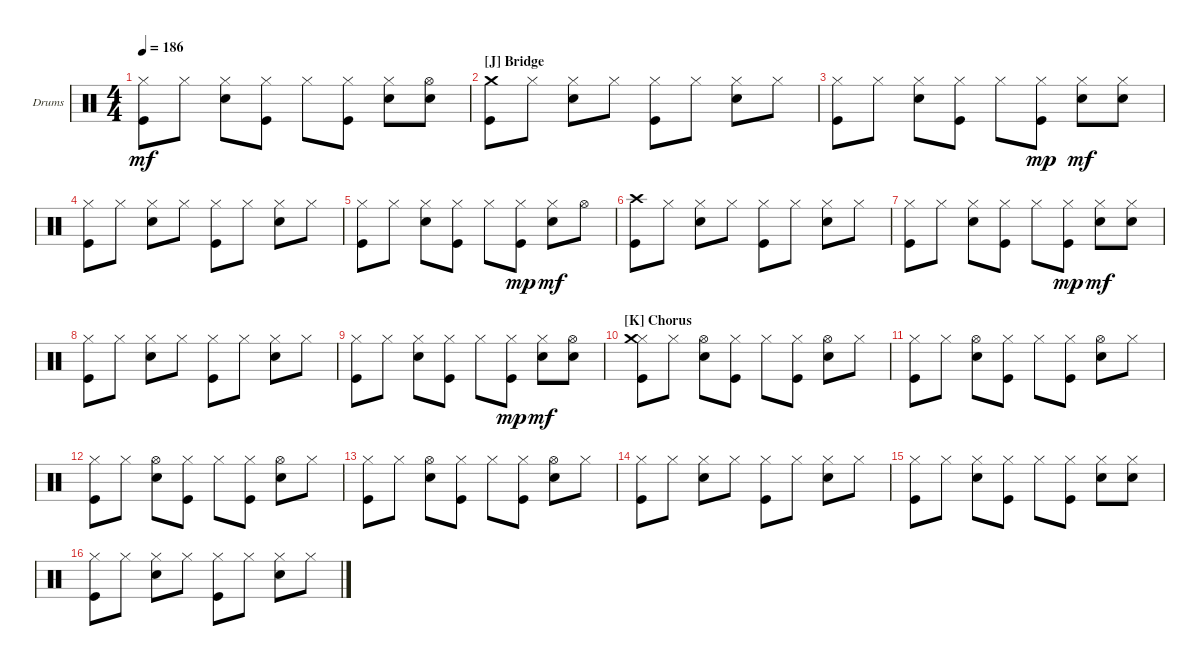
\bracketExtendMode groupsimilarinstruments
\firstSystemTrackNameOrientation horizontal
\otherSystemsTrackNameOrientation horizontal
\track ("Drumkit" "Drums") {instrument percussion}
\staff {score}
\articulation defaults
\ts (4 4)
\tempo 186
\clef neutral
\ks c
("Hi-Hat (closed)" "Kick (hit)").8{dy mf} "Hi-Hat (closed)".8 ("Hi-Hat (closed)" "Snare (hit) 2").8 ("Hi-Hat (closed)" "Kick (hit)").8 "Hi-Hat (closed)".8 ("Hi-Hat (closed)" "Kick (hit)").8 ("Hi-Hat (closed)" "Snare (hit) 2").8 ("Hi-Hat (open)" "Snare (hit) 2").8 |
\section ("J" "Bridge")
("Crash medium (hit)" "Kick (hit)").8 "Hi-Hat (closed)".8 ("Hi-Hat (closed)" "Snare (hit) 2").8 "Hi-Hat (closed)".8 ("Hi-Hat (closed)" "Kick (hit)").8 "Hi-Hat (closed)".8 ("Hi-Hat (closed)" "Snare (hit) 2").8 "Hi-Hat (closed)".8 |
("Hi-Hat (closed)" "Kick (hit)").8 "Hi-Hat (closed)".8 ("Hi-Hat (closed)" "Snare (hit) 2").8 ("Hi-Hat (closed)" "Kick (hit)").8 "Hi-Hat (closed)".8 ("Hi-Hat (closed)" "Kick (hit)").8{dy mp} ("Hi-Hat (closed)" "Snare (hit) 2").8{dy mf} ("Hi-Hat (closed)" "Snare (hit) 2").8 |
("Hi-Hat (closed)" "Kick (hit)").8 "Hi-Hat (closed)".8 ("Hi-Hat (closed)" "Snare (hit) 2").8 "Hi-Hat (closed)".8 ("Hi-Hat (closed)" "Kick (hit)").8 "Hi-Hat (closed)".8 ("Hi-Hat (closed)" "Snare (hit) 2").8 "Hi-Hat (closed)".8 |
("Hi-Hat (closed)" "Kick (hit)").8 "Hi-Hat (closed)".8 ("Hi-Hat (closed)" "Snare (hit) 2").8 ("Hi-Hat (closed)" "Kick (hit)").8 "Hi-Hat (closed)".8 ("Hi-Hat (closed)" "Kick (hit)").8{dy mp} ("Hi-Hat (closed)" "Snare (hit) 2").8{dy mf} "Hi-Hat (open)".8 |
("Crash high (hit)" "Kick (hit)").8 "Hi-Hat (closed)".8 ("Hi-Hat (closed)" "Snare (hit) 2").8 "Hi-Hat (closed)".8 ("Hi-Hat (closed)" "Kick (hit)").8 "Hi-Hat (closed)".8 ("Hi-Hat (closed)" "Snare (hit) 2").8 "Hi-Hat (closed)".8 |
("Hi-Hat (closed)" "Kick (hit)").8 "Hi-Hat (closed)".8 ("Hi-Hat (closed)" "Snare (hit) 2").8 ("Hi-Hat (closed)" "Kick (hit)").8 "Hi-Hat (closed)".8 ("Hi-Hat (closed)" "Kick (hit)").8{dy mp} ("Hi-Hat (closed)" "Snare (hit) 2").8{dy mf} ("Hi-Hat (closed)" "Snare (hit) 2").8 |
("Hi-Hat (closed)" "Kick (hit)").8 "Hi-Hat (closed)".8 ("Hi-Hat (closed)" "Snare (hit) 2").8 "Hi-Hat (closed)".8 ("Hi-Hat (closed)" "Kick (hit)").8 "Hi-Hat (closed)".8 ("Hi-Hat (closed)" "Snare (hit) 2").8 "Hi-Hat (closed)".8 |
("Hi-Hat (closed)" "Kick (hit)").8 "Hi-Hat (closed)".8 ("Hi-Hat (closed)" "Snare (hit) 2").8 ("Hi-Hat (closed)" "Kick (hit)").8 "Hi-Hat (closed)".8 ("Hi-Hat (closed)" "Kick (hit)").8{dy mp} ("Hi-Hat (closed)" "Snare (hit) 2").8{dy mf} ("Hi-Hat (open)" "Snare (hit) 2").8 |
\section ("K" "Chorus")
("Hi-Hat (closed)" "Crash medium (hit)" "Kick (hit)").8 "Hi-Hat (closed)".8 ("Hi-Hat (open)" "Snare (hit) 2").8 ("Hi-Hat (closed)" "Kick (hit)").8 "Hi-Hat (closed)".8 ("Hi-Hat (closed)" "Kick (hit)").8 ("Hi-Hat (open)" "Snare (hit) 2").8 "Hi-Hat (closed)".8 |
("Hi-Hat (closed)" "Kick (hit)").8 "Hi-Hat (closed)".8 ("Hi-Hat (open)" "Snare (hit) 2").8 ("Hi-Hat (closed)" "Kick (hit)").8 "Hi-Hat (closed)".8 ("Hi-Hat (closed)" "Kick (hit)").8 ("Hi-Hat (open)" "Snare (hit) 2").8 "Hi-Hat (closed)".8 |
("Hi-Hat (closed)" "Kick (hit)").8 "Hi-Hat (closed)".8 ("Hi-Hat (open)" "Snare (hit) 2").8 ("Hi-Hat (closed)" "Kick (hit)").8 "Hi-Hat (closed)".8 ("Hi-Hat (closed)" "Kick (hit)").8 ("Hi-Hat (open)" "Snare (hit) 2").8 "Hi-Hat (closed)".8 |
("Hi-Hat (closed)" "Kick (hit)").8 "Hi-Hat (closed)".8 ("Hi-Hat (open)" "Snare (hit) 2").8 ("Hi-Hat (closed)" "Kick (hit)").8 "Hi-Hat (closed)".8 ("Hi-Hat (closed)" "Kick (hit)").8 ("Hi-Hat (open)" "Snare (hit) 2").8 "Hi-Hat (closed)".8 |
("Hi-Hat (closed)" "Kick (hit)").8 "Hi-Hat (closed)".8 ("Hi-Hat (closed)" "Snare (hit) 2").8 "Hi-Hat (closed)".8 ("Hi-Hat (closed)" "Kick (hit)").8 "Hi-Hat (closed)".8 ("Hi-Hat (closed)" "Snare (hit) 2").8 "Hi-Hat (closed)".8 |
("Hi-Hat (closed)" "Kick (hit)").8 "Hi-Hat (closed)".8 ("Hi-Hat (closed)" "Snare (hit) 2").8 ("Hi-Hat (closed)" "Kick (hit)").8 "Hi-Hat (closed)".8 ("Hi-Hat (closed)" "Kick (hit)").8 ("Hi-Hat (closed)" "Snare (hit) 2").8 ("Hi-Hat (closed)" "Snare (hit) 2").8 |
("Hi-Hat (closed)" "Kick (hit)").8 "Hi-Hat (closed)".8 ("Hi-Hat (closed)" "Snare (hit) 2").8 "Hi-Hat (closed)".8 ("Hi-Hat (closed)" "Kick (hit)").8 "Hi-Hat (closed)".8 ("Hi-Hat (closed)" "Snare (hit) 2").8 "Hi-Hat (closed)".8
